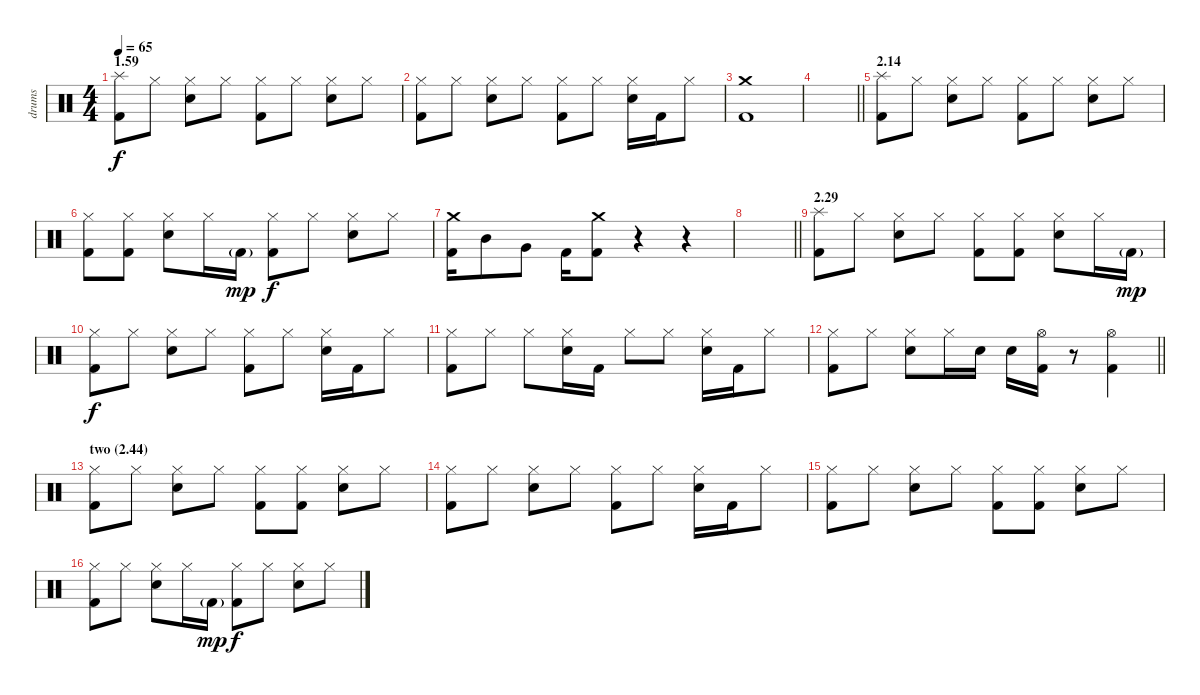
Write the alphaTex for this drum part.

\track ("drums" "drums") {instrument percussion}
\staff {score}
\articulation defaults
\ts (4 4)
\section ("" "1.59")
\tempo 65
\clef neutral
\ks c
("Splash (hit)" "Kick (hit) 2").8{dy f} "Hi-Hat (closed)".8 ("Hi-Hat (closed)" "Electric Snare (hit)").8 "Hi-Hat (closed)".8 ("Hi-Hat (closed)" "Kick (hit) 2").8 "Hi-Hat (closed)".8 ("Hi-Hat (closed)" "Electric Snare (hit)").8 "Hi-Hat (closed)".8 |
("Hi-Hat (closed)" "Kick (hit) 2").8 "Hi-Hat (closed)".8 ("Hi-Hat (closed)" "Electric Snare (hit)").8 "Hi-Hat (closed)".8 ("Hi-Hat (closed)" "Kick (hit) 2").8 "Hi-Hat (closed)".8 ("Hi-Hat (closed)" "Electric Snare (hit)").16 "Kick (hit) 2".16 "Hi-Hat (closed)".8 |
("Crash medium (hit)" "Kick (hit) 2").1 |
\barLineRight lightlight
|
\section ("" "2.14")
("Splash (hit)" "Kick (hit) 2").8 "Hi-Hat (closed)".8 ("Hi-Hat (closed)" "Electric Snare (hit)").8 "Hi-Hat (closed)".8 ("Hi-Hat (closed)" "Kick (hit) 2").8 "Hi-Hat (closed)".8 ("Hi-Hat (closed)" "Electric Snare (hit)").8 "Hi-Hat (closed)".8 |
("Hi-Hat (closed)" "Kick (hit) 2").8 ("Hi-Hat (closed)" "Kick (hit) 2").8 ("Hi-Hat (closed)" "Electric Snare (hit)").8 "Hi-Hat (closed)".16 "Kick (hit) 2"{g}.16{dy mp} ("Hi-Hat (closed)" "Kick (hit) 2").8{dy f} "Hi-Hat (closed)".8 ("Hi-Hat (closed)" "Electric Snare (hit)").8 "Hi-Hat (closed)".8 |
("Crash medium (hit)" "Kick (hit) 2").16 "Mid Tom (hit)".8 "Very Low Tom (hit)".8 "Kick (hit) 2".16 ("Crash medium (hit)" "Kick (hit) 2").8 r.4 r.4 |
\barLineRight lightlight
|
\section ("" "2.29")
("Splash (hit)" "Kick (hit) 2").8 "Hi-Hat (closed)".8 ("Hi-Hat (closed)" "Electric Snare (hit)").8 "Hi-Hat (closed)".8 ("Hi-Hat (closed)" "Kick (hit) 2").8 ("Hi-Hat (closed)" "Kick (hit) 2").8 ("Hi-Hat (closed)" "Electric Snare (hit)").8 "Hi-Hat (closed)".16 "Kick (hit) 2"{g}.16{dy mp} |
("Hi-Hat (closed)" "Kick (hit) 2").8{dy f} "Hi-Hat (closed)".8 ("Hi-Hat (closed)" "Electric Snare (hit)").8 "Hi-Hat (closed)".8 ("Hi-Hat (closed)" "Kick (hit) 2").8 "Hi-Hat (closed)".8 ("Hi-Hat (closed)" "Electric Snare (hit)").16 "Kick (hit) 2".16 "Hi-Hat (closed)".8 |
("Hi-Hat (closed)" "Kick (hit) 2").8 "Hi-Hat (closed)".8 "Hi-Hat (closed)".8 ("Hi-Hat (closed)" "Electric Snare (hit)").16 "Kick (hit) 2".16 "Hi-Hat (closed)".8 "Hi-Hat (closed)".8 ("Hi-Hat (closed)" "Electric Snare (hit)").16 "Kick (hit) 2".16 "Hi-Hat (closed)".8 |
\barLineRight lightlight
("Hi-Hat (closed)" "Kick (hit) 2").8 "Hi-Hat (closed)".8 ("Hi-Hat (closed)" "Electric Snare (hit)").8 "Hi-Hat (closed)".16 "Electric Snare (hit)".16 "Electric Snare (hit)".16 ("Hi-Hat (open)" "Kick (hit) 2").16 r.8 ("Hi-Hat (open)" "Kick (hit) 2").4 |
\section ("" "two (2.44)")
("Hi-Hat (closed)" "Kick (hit) 2").8 "Hi-Hat (closed)".8 ("Hi-Hat (closed)" "Electric Snare (hit)").8 "Hi-Hat (closed)".8 ("Hi-Hat (closed)" "Kick (hit) 2").8 ("Hi-Hat (closed)" "Kick (hit) 2").8 ("Hi-Hat (closed)" "Electric Snare (hit)").8 "Hi-Hat (closed)".8 |
("Hi-Hat (closed)" "Kick (hit) 2").8 "Hi-Hat (closed)".8 ("Hi-Hat (closed)" "Electric Snare (hit)").8 "Hi-Hat (closed)".8 ("Hi-Hat (closed)" "Kick (hit) 2").8 "Hi-Hat (closed)".8 ("Hi-Hat (closed)" "Electric Snare (hit)").16 "Kick (hit) 2".16 "Hi-Hat (closed)".8 |
("Hi-Hat (closed)" "Kick (hit) 2").8 "Hi-Hat (closed)".8 ("Hi-Hat (closed)" "Electric Snare (hit)").8 "Hi-Hat (closed)".8 ("Hi-Hat (closed)" "Kick (hit) 2").8 ("Hi-Hat (closed)" "Kick (hit) 2").8 ("Hi-Hat (closed)" "Electric Snare (hit)").8 "Hi-Hat (closed)".8 |
("Hi-Hat (closed)" "Kick (hit) 2").8 "Hi-Hat (closed)".8 ("Hi-Hat (closed)" "Electric Snare (hit)").8 "Hi-Hat (closed)".16 "Kick (hit) 2"{g}.16{dy mp} ("Hi-Hat (closed)" "Kick (hit) 2").8{dy f} "Hi-Hat (closed)".8 ("Hi-Hat (closed)" "Electric Snare (hit)").8 "Hi-Hat (closed)".8
